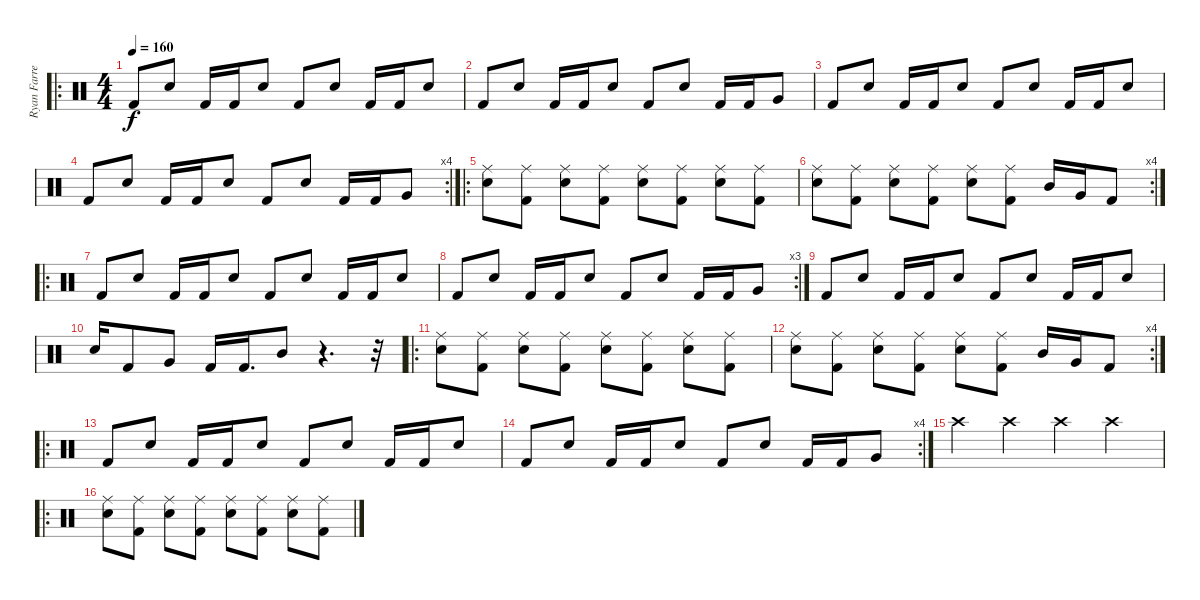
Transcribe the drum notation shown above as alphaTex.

\track ("Ryan Farrell" "Ryan Farre") {instrument percussion}
\staff {score}
\articulation defaults
\ro
\ts (4 4)
\tempo 160
\clef neutral
\ks c "Kick (hit) 2".8{dy f} "Snare (hit) 2".8 "Kick (hit) 2".16 "Kick (hit) 2".16 "Snare (hit) 2".8 "Kick (hit) 2".8 "Snare (hit) 2".8 "Kick (hit) 2".16 "Kick (hit) 2".16 "Snare (hit) 2".8
|
"Kick (hit) 2".8 "Snare (hit) 2".8 "Kick (hit) 2".16 "Kick (hit) 2".16 "Snare (hit) 2".8 "Kick (hit) 2".8 "Snare (hit) 2".8 "Kick (hit) 2".16 "Kick (hit) 2".16 "Very Low Tom (hit)".8 |
"Kick (hit) 2".8 "Snare (hit) 2".8 "Kick (hit) 2".16 "Kick (hit) 2".16 "Snare (hit) 2".8 "Kick (hit) 2".8 "Snare (hit) 2".8 "Kick (hit) 2".16 "Kick (hit) 2".16 "Snare (hit) 2".8 |
\rc 4 "Kick (hit) 2".8 "Snare (hit) 2".8 "Kick (hit) 2".16 "Kick (hit) 2".16 "Snare (hit) 2".8 "Kick (hit) 2".8 "Snare (hit) 2".8 "Kick (hit) 2".16 "Kick (hit) 2".16 "Very Low Tom (hit)".8
|
\ro
("Ride (middle)" "Snare (hit) 2").8 ("Ride (middle)" "Kick (hit) 2").8 ("Ride (middle)" "Snare (hit) 2").8 ("Ride (middle)" "Kick (hit) 2").8 ("Ride (middle)" "Snare (hit) 2").8 ("Ride (middle)" "Kick (hit) 2").8 ("Ride (middle)" "Snare (hit) 2").8 ("Ride (middle)" "Kick (hit) 2").8 |
\rc 4
("Ride (middle)" "Snare (hit) 2").8 ("Ride (middle)" "Kick (hit) 2").8 ("Ride (middle)" "Snare (hit) 2").8 ("Ride (middle)" "Kick (hit) 2").8 ("Ride (middle)" "Snare (hit) 2").8 ("Ride (middle)" "Kick (hit) 2").8 "Mid Tom (hit)".16 "Very Low Tom (hit)".16 "Kick (hit) 2".8 |
\ro "Kick (hit) 2".8 "Snare (hit) 2".8 "Kick (hit) 2".16 "Kick (hit) 2".16 "Snare (hit) 2".8 "Kick (hit) 2".8 "Snare (hit) 2".8 "Kick (hit) 2".16 "Kick (hit) 2".16 "Snare (hit) 2".8
|
\rc 3 "Kick (hit) 2".8 "Snare (hit) 2".8 "Kick (hit) 2".16 "Kick (hit) 2".16 "Snare (hit) 2".8 "Kick (hit) 2".8 "Snare (hit) 2".8 "Kick (hit) 2".16 "Kick (hit) 2".16 "Very Low Tom (hit)".8
|
"Kick (hit) 2".8 "Snare (hit) 2".8 "Kick (hit) 2".16 "Kick (hit) 2".16 "Snare (hit) 2".8 "Kick (hit) 2".8 "Snare (hit) 2".8 "Kick (hit) 2".16 "Kick (hit) 2".16 "Snare (hit) 2".8 |
"Snare (hit) 2".16 "Kick (hit) 2".8 "Very Low Tom (hit)".8 "Kick (hit) 2".16 "Kick (hit) 2".16{d} "Mid Tom (hit)".8 r.4{d} r.32 |
\ro
("Ride (middle)" "Snare (hit) 2").8 ("Ride (middle)" "Kick (hit) 2").8 ("Ride (middle)" "Snare (hit) 2").8 ("Ride (middle)" "Kick (hit) 2").8 ("Ride (middle)" "Snare (hit) 2").8 ("Ride (middle)" "Kick (hit) 2").8 ("Ride (middle)" "Snare (hit) 2").8 ("Ride (middle)" "Kick (hit) 2").8 |
\rc 4
("Ride (middle)" "Snare (hit) 2").8 ("Ride (middle)" "Kick (hit) 2").8 ("Ride (middle)" "Snare (hit) 2").8 ("Ride (middle)" "Kick (hit) 2").8 ("Ride (middle)" "Snare (hit) 2").8 ("Ride (middle)" "Kick (hit) 2").8 "Mid Tom (hit)".16 "Very Low Tom (hit)".16 "Kick (hit) 2".8 |
\ro "Kick (hit) 2".8 "Snare (hit) 2".8 "Kick (hit) 2".16 "Kick (hit) 2".16 "Snare (hit) 2".8 "Kick (hit) 2".8 "Snare (hit) 2".8 "Kick (hit) 2".16 "Kick (hit) 2".16 "Snare (hit) 2".8
|
\rc 4 "Kick (hit) 2".8 "Snare (hit) 2".8 "Kick (hit) 2".16 "Kick (hit) 2".16 "Snare (hit) 2".8 "Kick (hit) 2".8 "Snare (hit) 2".8 "Kick (hit) 2".16 "Kick (hit) 2".16 "Very Low Tom (hit)".8
|
"Crash high (hit)".4 "Crash high (hit)".4 "Crash high (hit)".4 "Crash high (hit)".4 |
\ro
("Ride (middle)" "Snare (hit) 2").8 ("Ride (middle)" "Kick (hit) 2").8 ("Ride (middle)" "Snare (hit) 2").8 ("Ride (middle)" "Kick (hit) 2").8 ("Ride (middle)" "Snare (hit) 2").8 ("Ride (middle)" "Kick (hit) 2").8 ("Ride (middle)" "Snare (hit) 2").8 ("Ride (middle)" "Kick (hit) 2").8
